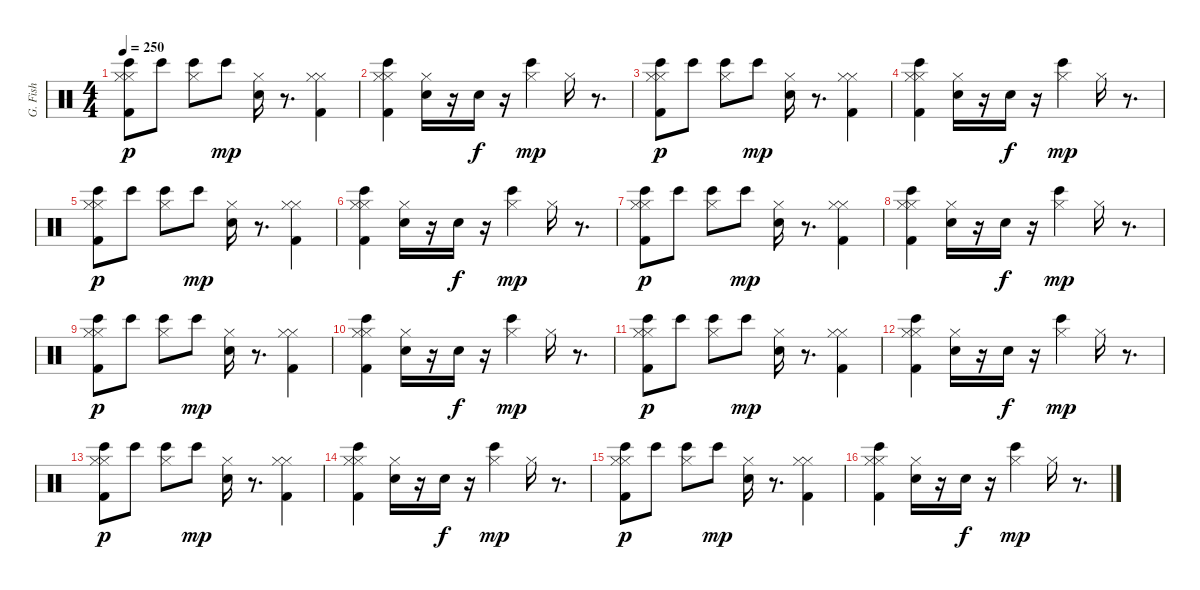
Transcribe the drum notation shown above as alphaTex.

\track ("G. Fish" "G. Fish") {instrument percussion}
\staff {score}
\articulation defaults
\ts (4 4)
\tempo 250
\clef neutral
\ks c
("Kick (hit) 2" "Hi-Hat (closed)" "Bongo High (hit)" "Hi-Hat (closed)").8{dy p} "Bongo High (hit)".8 ("Hi-Hat (closed)" "Bongo High (hit)").8 "Bongo High (hit)".8{dy mp} ("Electric Snare (hit)" "Hi-Hat (closed)").16 r.8{d} ("Kick (hit) 2" "Hi-Hat (closed)" "Hi-Hat (closed)").4 |
("Kick (hit) 2" "Hi-Hat (closed)" "Hi-Hat (closed)" "Bongo High (hit)").4 ("Electric Snare (hit)" "Hi-Hat (closed)").16 r.16 "Electric Snare (hit)".16{dy f} r.16 ("Hi-Hat (closed)" "Bongo High (hit)").4{dy mp} "Hi-Hat (closed)".16 r.8{d} |
("Hi-Hat (closed)" "Kick (hit) 2" "Hi-Hat (closed)" "Bongo High (hit)").8{dy p} "Bongo High (hit)".8 ("Hi-Hat (closed)" "Bongo High (hit)").8 "Bongo High (hit)".8{dy mp} ("Hi-Hat (closed)" "Electric Snare (hit)").16 r.8{d} ("Hi-Hat (closed)" "Kick (hit) 2" "Hi-Hat (closed)").4 |
("Hi-Hat (closed)" "Kick (hit) 2" "Hi-Hat (closed)" "Bongo High (hit)").4 ("Hi-Hat (closed)" "Electric Snare (hit)").16 r.16 "Electric Snare (hit)".16{dy f} r.16 ("Hi-Hat (closed)" "Bongo High (hit)").4{dy mp} "Hi-Hat (closed)".16 r.8{d} |
("Kick (hit) 2" "Hi-Hat (closed)" "Bongo High (hit)" "Hi-Hat (closed)").8{dy p} "Bongo High (hit)".8 ("Hi-Hat (closed)" "Bongo High (hit)").8 "Bongo High (hit)".8{dy mp} ("Hi-Hat (closed)" "Electric Snare (hit)").16 r.8{d} ("Kick (hit) 2" "Hi-Hat (closed)" "Hi-Hat (closed)").4 |
("Kick (hit) 2" "Hi-Hat (closed)" "Hi-Hat (closed)" "Bongo High (hit)").4 ("Electric Snare (hit)" "Hi-Hat (closed)").16 r.16 "Electric Snare (hit)".16{dy f} r.16 ("Hi-Hat (closed)" "Bongo High (hit)").4{dy mp} "Hi-Hat (closed)".16 r.8{d} |
("Hi-Hat (closed)" "Kick (hit) 2" "Hi-Hat (closed)" "Bongo High (hit)").8{dy p} "Bongo High (hit)".8 ("Hi-Hat (closed)" "Bongo High (hit)").8 "Bongo High (hit)".8{dy mp} ("Hi-Hat (closed)" "Electric Snare (hit)").16 r.8{d} ("Hi-Hat (closed)" "Kick (hit) 2" "Hi-Hat (closed)").4 |
("Hi-Hat (closed)" "Kick (hit) 2" "Hi-Hat (closed)" "Bongo High (hit)").4 ("Electric Snare (hit)" "Hi-Hat (closed)").16 r.16 "Electric Snare (hit)".16{dy f} r.16 ("Bongo High (hit)" "Hi-Hat (closed)").4{dy mp} "Hi-Hat (closed)".16 r.8{d} |
("Kick (hit) 2" "Hi-Hat (closed)" "Bongo High (hit)" "Hi-Hat (closed)").8{dy p} "Bongo High (hit)".8 ("Hi-Hat (closed)" "Bongo High (hit)").8 "Bongo High (hit)".8{dy mp} ("Electric Snare (hit)" "Hi-Hat (closed)").16 r.8{d} ("Kick (hit) 2" "Hi-Hat (closed)" "Hi-Hat (closed)").4 |
("Kick (hit) 2" "Hi-Hat (closed)" "Hi-Hat (closed)" "Bongo High (hit)").4 ("Electric Snare (hit)" "Hi-Hat (closed)").16 r.16 "Electric Snare (hit)".16{dy f} r.16 ("Hi-Hat (closed)" "Bongo High (hit)").4{dy mp} "Hi-Hat (closed)".16 r.8{d} |
("Hi-Hat (closed)" "Kick (hit) 2" "Hi-Hat (closed)" "Bongo High (hit)").8{dy p} "Bongo High (hit)".8 ("Hi-Hat (closed)" "Bongo High (hit)").8 "Bongo High (hit)".8{dy mp} ("Hi-Hat (closed)" "Electric Snare (hit)").16 r.8{d} ("Hi-Hat (closed)" "Kick (hit) 2" "Hi-Hat (closed)").4 |
("Hi-Hat (closed)" "Kick (hit) 2" "Hi-Hat (closed)" "Bongo High (hit)").4 ("Hi-Hat (closed)" "Electric Snare (hit)").16 r.16 "Electric Snare (hit)".16{dy f} r.16 ("Hi-Hat (closed)" "Bongo High (hit)").4{dy mp} "Hi-Hat (closed)".16 r.8{d} |
("Kick (hit) 2" "Hi-Hat (closed)" "Bongo High (hit)" "Hi-Hat (closed)").8{dy p} "Bongo High (hit)".8 ("Hi-Hat (closed)" "Bongo High (hit)").8 "Bongo High (hit)".8{dy mp} ("Hi-Hat (closed)" "Electric Snare (hit)").16 r.8{d} ("Kick (hit) 2" "Hi-Hat (closed)" "Hi-Hat (closed)").4 |
("Kick (hit) 2" "Hi-Hat (closed)" "Hi-Hat (closed)" "Bongo High (hit)").4 ("Electric Snare (hit)" "Hi-Hat (closed)").16 r.16 "Electric Snare (hit)".16{dy f} r.16 ("Hi-Hat (closed)" "Bongo High (hit)").4{dy mp} "Hi-Hat (closed)".16 r.8{d} |
("Hi-Hat (closed)" "Kick (hit) 2" "Hi-Hat (closed)" "Bongo High (hit)").8{dy p} "Bongo High (hit)".8 ("Hi-Hat (closed)" "Bongo High (hit)").8 "Bongo High (hit)".8{dy mp} ("Hi-Hat (closed)" "Electric Snare (hit)").16 r.8{d} ("Hi-Hat (closed)" "Kick (hit) 2" "Hi-Hat (closed)").4 |
("Hi-Hat (closed)" "Kick (hit) 2" "Hi-Hat (closed)" "Bongo High (hit)").4 ("Electric Snare (hit)" "Hi-Hat (closed)").16 r.16 "Electric Snare (hit)".16{dy f} r.16 ("Bongo High (hit)" "Hi-Hat (closed)").4{dy mp} "Hi-Hat (closed)".16 r.8{d}
